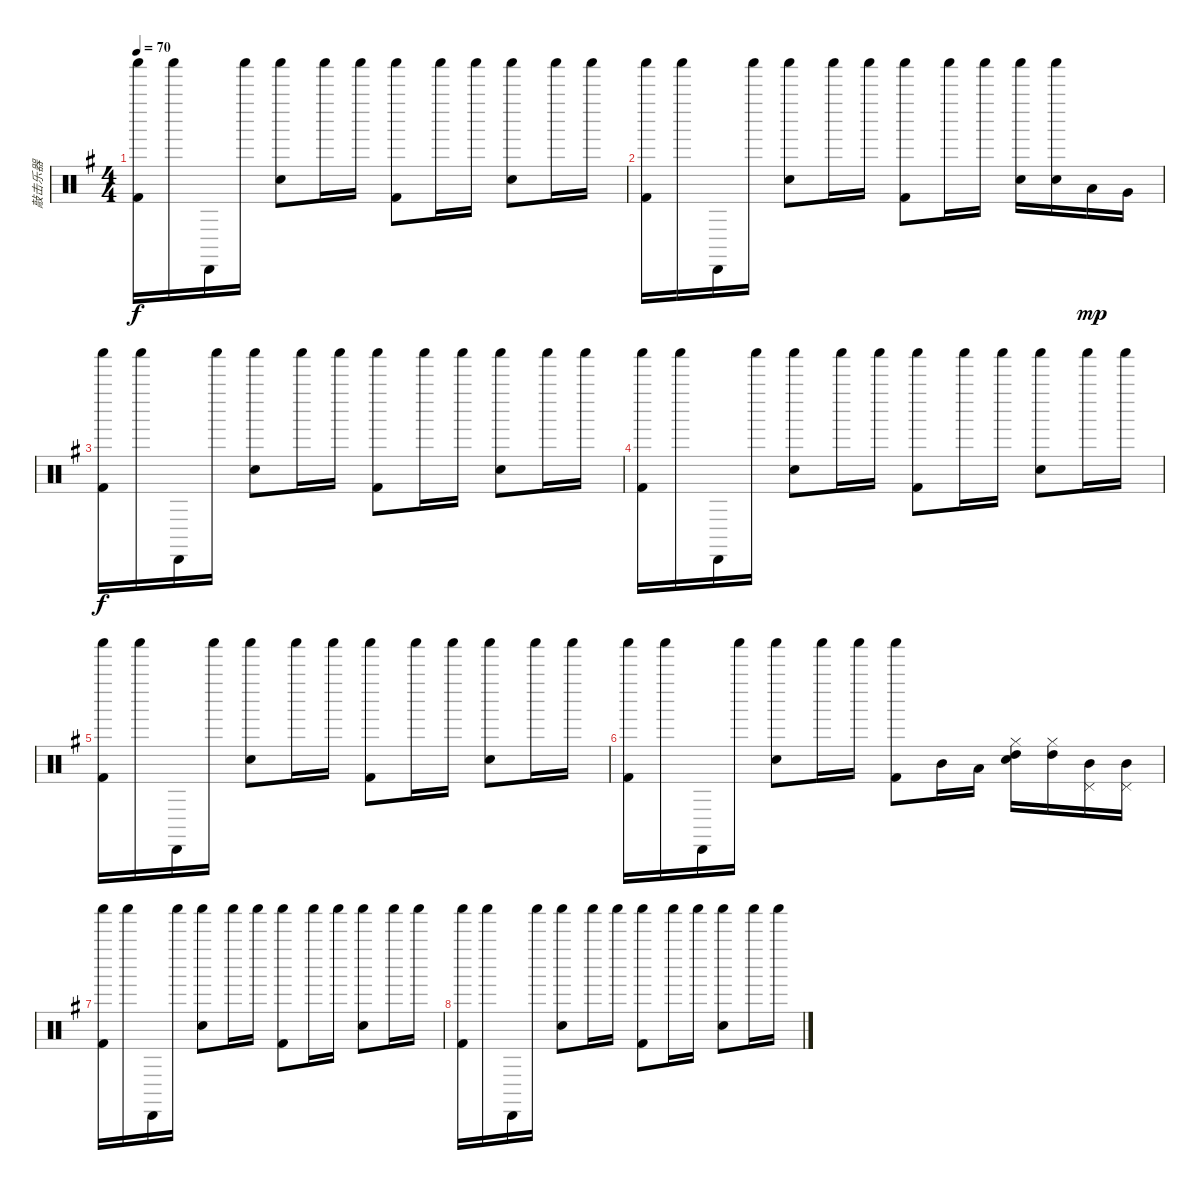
\track ("敲击乐器" "敲击乐器") {instrument percussion}
\staff {score}
\articulation defaults
\ts (4 4)
\tempo 70
\clef neutral
\ks g
("Shaker (hit)" "Kick (hit) 2").16{dy f} "Shaker (hit)".16 "Cabasa (hit)".16 "Shaker (hit)".16 ("Shaker (hit)" "Snare (hit) 2").8 "Shaker (hit)".16 "Shaker (hit)".16 ("Shaker (hit)" "Kick (hit) 2").8 "Shaker (hit)".16 "Shaker (hit)".16 ("Shaker (hit)" "Snare (hit) 2").8 "Shaker (hit)".16 "Shaker (hit)".16 |
("Shaker (hit)" "Kick (hit) 2").16 "Shaker (hit)".16 "Cabasa (hit)".16 "Shaker (hit)".16 ("Shaker (hit)" "Snare (hit) 2").8 "Shaker (hit)".16 "Shaker (hit)".16 ("Shaker (hit)" "Kick (hit) 2").8 "Shaker (hit)".16 "Shaker (hit)".16 ("Shaker (hit)" "Snare (hit) 2").16 ("Shaker (hit)" "Electric Snare (hit)").16 "Low Tom (hit)".16{dy mp} "Very Low Tom (hit)".16 |
("Shaker (hit)" "Kick (hit) 2").16{dy f} "Shaker (hit)".16 "Cabasa (hit)".16 "Shaker (hit)".16 ("Shaker (hit)" "Snare (hit) 2").8 "Shaker (hit)".16 "Shaker (hit)".16 ("Shaker (hit)" "Kick (hit) 2").8 "Shaker (hit)".16 "Shaker (hit)".16 ("Shaker (hit)" "Snare (hit) 2").8 "Shaker (hit)".16 "Shaker (hit)".16 |
("Shaker (hit)" "Kick (hit) 2").16 "Shaker (hit)".16 "Cabasa (hit)".16 "Shaker (hit)".16 ("Shaker (hit)" "Snare (hit) 2").8 "Shaker (hit)".16 "Shaker (hit)".16 ("Shaker (hit)" "Kick (hit) 2").8 "Shaker (hit)".16 "Shaker (hit)".16 ("Shaker (hit)" "Snare (hit) 2").8 "Shaker (hit)".16 "Shaker (hit)".16 |
("Shaker (hit)" "Kick (hit) 2").16 "Shaker (hit)".16 "Cabasa (hit)".16 "Shaker (hit)".16 ("Shaker (hit)" "Snare (hit) 2").8 "Shaker (hit)".16 "Shaker (hit)".16 ("Shaker (hit)" "Kick (hit) 2").8 "Shaker (hit)".16 "Shaker (hit)".16 ("Shaker (hit)" "Snare (hit) 2").8 "Shaker (hit)".16 "Shaker (hit)".16 |
("Shaker (hit)" "Kick (hit) 2").16 "Shaker (hit)".16 "Cabasa (hit)".16 "Shaker (hit)".16 ("Shaker (hit)" "Snare (hit) 2").8 "Shaker (hit)".16 "Shaker (hit)".16 ("Shaker (hit)" "Kick (hit) 2").8 "Mid Tom (hit)".16 "Low Tom (hit)".16 ("Hi-Hat (closed)" "High Tom (hit)" "Snare (hit) 2").16 ("Hi-Hat (closed)" "High Tom (hit)").16 ("Pedal Hi-Hat (hit)" "Mid Tom (hit)").16 ("Pedal Hi-Hat (hit)" "Mid Tom (hit)").16 |
("Shaker (hit)" "Kick (hit) 2").16 "Shaker (hit)".16 "Cabasa (hit)".16 "Shaker (hit)".16 ("Shaker (hit)" "Snare (hit) 2").8 "Shaker (hit)".16 "Shaker (hit)".16 ("Shaker (hit)" "Kick (hit) 2").8 "Shaker (hit)".16 "Shaker (hit)".16 ("Shaker (hit)" "Snare (hit) 2").8 "Shaker (hit)".16 "Shaker (hit)".16 |
("Shaker (hit)" "Kick (hit) 2").16 "Shaker (hit)".16 "Cabasa (hit)".16 "Shaker (hit)".16 ("Shaker (hit)" "Snare (hit) 2").8 "Shaker (hit)".16 "Shaker (hit)".16 ("Shaker (hit)" "Kick (hit) 2").8 "Shaker (hit)".16 "Shaker (hit)".16 ("Shaker (hit)" "Snare (hit) 2").8 "Shaker (hit)".16 "Shaker (hit)".16
